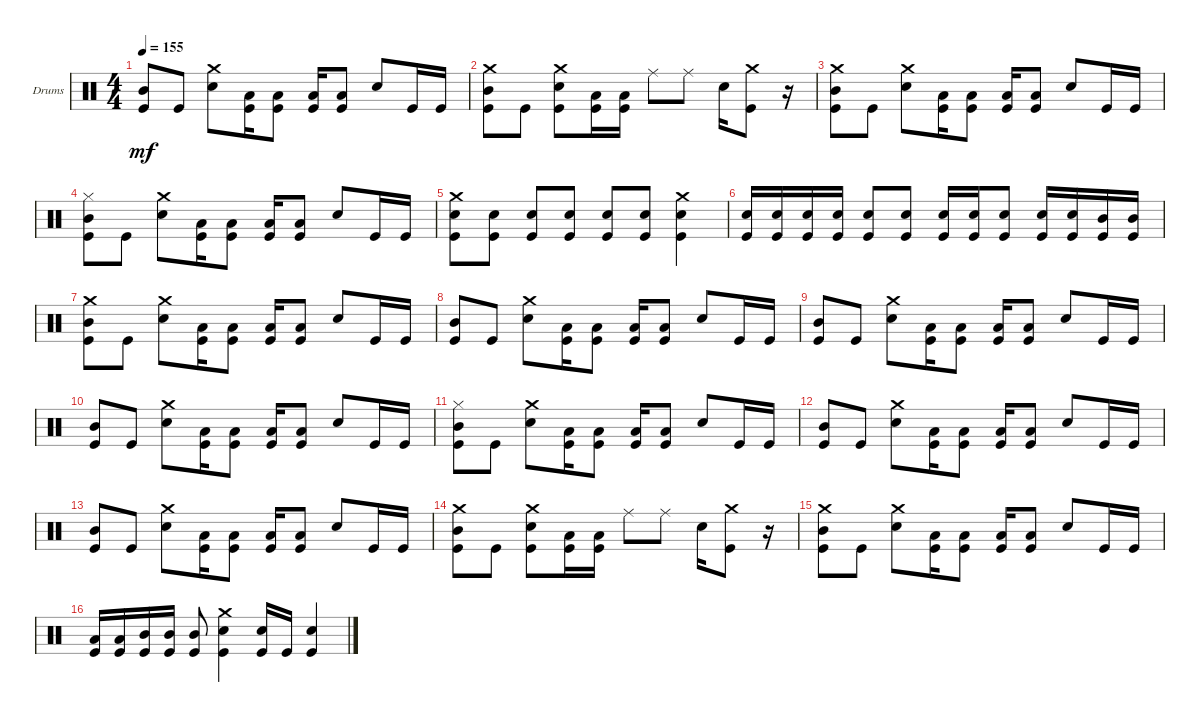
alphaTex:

\defaultSystemsLayout 4
\bracketExtendMode groupsimilarinstruments
\firstSystemTrackNameOrientation horizontal
\otherSystemsTrackNameOrientation horizontal
\track ("Drumkit" "Drums") {instrument percussion}
\staff {score}
\articulation defaults
\ts (4 4)
\tempo 155
\clef neutral
\ks c
("Kick (hit)" "Mid Tom (hit)").8{dy mf} "Kick (hit)".8 ("Snare (hit) 2" "Crash medium (hit)").8 ("Kick (hit)" "Low Tom (hit)").16 ("Kick (hit)" "Low Tom (hit)").8 ("Kick (hit)" "Low Tom (hit)").16 ("Kick (hit)" "Low Tom (hit)").8 "Snare (hit) 2".8 "Kick (hit)".16 "Kick (hit)".16 |
("Kick (hit)" "Mid Tom (hit)" "Crash medium (hit)").8 "Kick (hit)".8 ("Kick (hit)" "Snare (hit) 2" "Crash medium (hit)").8 ("Kick (hit)" "Low Tom (hit)").16 ("Kick (hit)" "Low Tom (hit)").16 "Ride (middle)".8 "Ride (middle)".8 "Snare (hit) 2".16 ("Kick (hit)" "Crash medium (hit)").8 r.16 |
("Kick (hit)" "Mid Tom (hit)" "Crash medium (hit)").8 "Kick (hit)".8 ("Snare (hit) 2" "Crash medium (hit)").8 ("Kick (hit)" "Low Tom (hit)").16 ("Kick (hit)" "Low Tom (hit)").8 ("Kick (hit)" "Low Tom (hit)").16 ("Kick (hit)" "Low Tom (hit)").8 "Snare (hit) 2".8 "Kick (hit)".16 "Kick (hit)".16 |
("Kick (hit)" "Mid Tom (hit)" "Hi-Hat (closed)").8 "Kick (hit)".8 ("Snare (hit) 2" "Crash medium (hit)").8 ("Kick (hit)" "Low Tom (hit)").16 ("Kick (hit)" "Low Tom (hit)").8 ("Kick (hit)" "Low Tom (hit)").16 ("Kick (hit)" "Low Tom (hit)").8 "Snare (hit) 2".8 "Kick (hit)".16 "Kick (hit)".16 |
("Kick (hit)" "Snare (hit) 2" "Crash medium (hit)").8 ("Kick (hit)" "Snare (hit) 2").8 ("Kick (hit)" "Snare (hit) 2").8 ("Kick (hit)" "Snare (hit) 2").8 ("Kick (hit)" "Snare (hit) 2").8 ("Kick (hit)" "Snare (hit) 2").8 ("Kick (hit)" "Snare (hit) 2" "Crash medium (hit)").4 |
("Kick (hit)" "Snare (hit) 2").16 ("Kick (hit)" "Snare (hit) 2").16 ("Kick (hit)" "Snare (hit) 2").16 ("Kick (hit)" "Snare (hit) 2").16 ("Kick (hit)" "Snare (hit) 2").8 ("Kick (hit)" "Snare (hit) 2").8 ("Kick (hit)" "Snare (hit) 2").16 ("Kick (hit)" "Snare (hit) 2").16 ("Kick (hit)" "Snare (hit) 2").8 ("Kick (hit)" "Snare (hit) 2").16 ("Kick (hit)" "Snare (hit) 2").16 ("Kick (hit)" "Mid Tom (hit)").16 ("Kick (hit)" "Mid Tom (hit)").16 |
("Kick (hit)" "Mid Tom (hit)" "Crash medium (hit)").8 "Kick (hit)".8 ("Snare (hit) 2" "Crash medium (hit)").8 ("Kick (hit)" "Low Tom (hit)").16 ("Kick (hit)" "Low Tom (hit)").8 ("Kick (hit)" "Low Tom (hit)").16 ("Kick (hit)" "Low Tom (hit)").8 "Snare (hit) 2".8 "Kick (hit)".16 "Kick (hit)".16 |
("Kick (hit)" "Mid Tom (hit)").8 "Kick (hit)".8 ("Snare (hit) 2" "Crash medium (hit)").8 ("Kick (hit)" "Low Tom (hit)").16 ("Kick (hit)" "Low Tom (hit)").8 ("Kick (hit)" "Low Tom (hit)").16 ("Kick (hit)" "Low Tom (hit)").8 "Snare (hit) 2".8 "Kick (hit)".16 "Kick (hit)".16 |
("Kick (hit)" "Mid Tom (hit)").8 "Kick (hit)".8 ("Snare (hit) 2" "Crash medium (hit)").8 ("Kick (hit)" "Low Tom (hit)").16 ("Kick (hit)" "Low Tom (hit)").8 ("Kick (hit)" "Low Tom (hit)").16 ("Kick (hit)" "Low Tom (hit)").8 "Snare (hit) 2".8 "Kick (hit)".16 "Kick (hit)".16 |
("Kick (hit)" "Mid Tom (hit)").8 "Kick (hit)".8 ("Snare (hit) 2" "Crash medium (hit)").8 ("Kick (hit)" "Low Tom (hit)").16 ("Kick (hit)" "Low Tom (hit)").8 ("Kick (hit)" "Low Tom (hit)").16 ("Kick (hit)" "Low Tom (hit)").8 "Snare (hit) 2".8 "Kick (hit)".16 "Kick (hit)".16 |
("Kick (hit)" "Mid Tom (hit)" "Hi-Hat (closed)").8 "Kick (hit)".8 ("Snare (hit) 2" "Crash medium (hit)").8 ("Kick (hit)" "Low Tom (hit)").16 ("Kick (hit)" "Low Tom (hit)").8 ("Kick (hit)" "Low Tom (hit)").16 ("Kick (hit)" "Low Tom (hit)").8 "Snare (hit) 2".8 "Kick (hit)".16 "Kick (hit)".16 |
("Kick (hit)" "Mid Tom (hit)").8 "Kick (hit)".8 ("Snare (hit) 2" "Crash medium (hit)").8 ("Kick (hit)" "Low Tom (hit)").16 ("Kick (hit)" "Low Tom (hit)").8 ("Kick (hit)" "Low Tom (hit)").16 ("Kick (hit)" "Low Tom (hit)").8 "Snare (hit) 2".8 "Kick (hit)".16 "Kick (hit)".16 |
("Kick (hit)" "Mid Tom (hit)").8 "Kick (hit)".8 ("Snare (hit) 2" "Crash medium (hit)").8 ("Kick (hit)" "Low Tom (hit)").16 ("Kick (hit)" "Low Tom (hit)").8 ("Kick (hit)" "Low Tom (hit)").16 ("Kick (hit)" "Low Tom (hit)").8 "Snare (hit) 2".8 "Kick (hit)".16 "Kick (hit)".16 |
("Kick (hit)" "Mid Tom (hit)" "Crash medium (hit)").8 "Kick (hit)".8 ("Kick (hit)" "Snare (hit) 2" "Crash medium (hit)").8 ("Kick (hit)" "Low Tom (hit)").16 ("Kick (hit)" "Low Tom (hit)").16 "Ride (middle)".8 "Ride (middle)".8 "Snare (hit) 2".16 ("Kick (hit)" "Crash medium (hit)").8 r.16 |
("Kick (hit)" "Mid Tom (hit)" "Crash medium (hit)").8 "Kick (hit)".8 ("Snare (hit) 2" "Crash medium (hit)").8 ("Kick (hit)" "Low Tom (hit)").16 ("Kick (hit)" "Low Tom (hit)").8 ("Kick (hit)" "Low Tom (hit)").16 ("Kick (hit)" "Low Tom (hit)").8 "Snare (hit) 2".8 "Kick (hit)".16 "Kick (hit)".16 |
("Kick (hit)" "Low Tom (hit)").16 ("Kick (hit)" "Low Tom (hit)").16 ("Kick (hit)" "Mid Tom (hit)").16 ("Kick (hit)" "Mid Tom (hit)").16 ("Kick (hit)" "Mid Tom (hit)").8 ("Kick (hit)" "Snare (hit) 2" "Crash medium (hit)").4 ("Kick (hit)" "Snare (hit) 2").16 "Kick (hit)".16 ("Kick (hit)" "Snare (hit) 2").4
